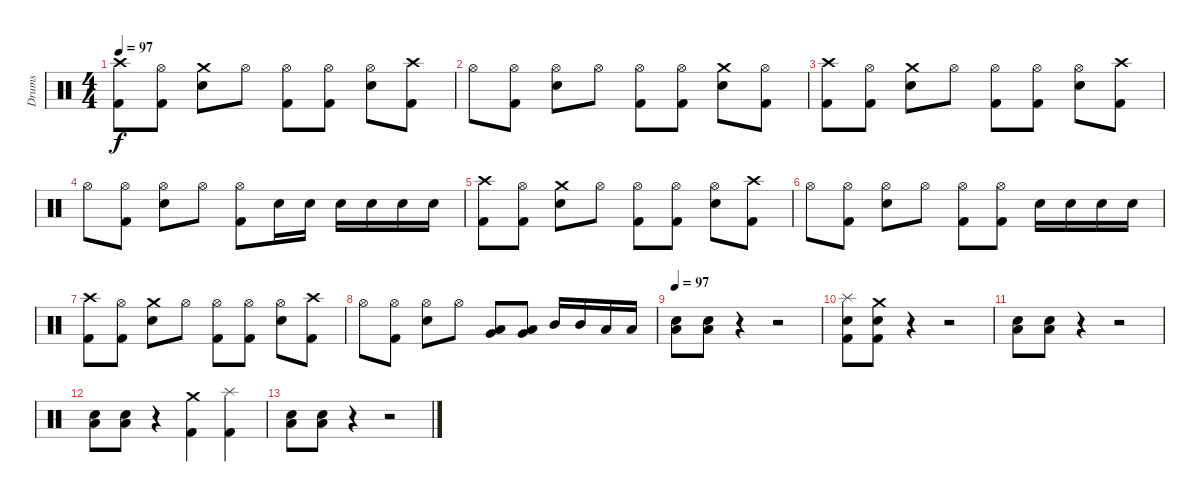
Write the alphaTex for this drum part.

\track ("Drums" "Drums") {instrument percussion}
\staff {score}
\articulation defaults
\ts (4 4)
\tempo 97
\clef neutral
\ks c
("Crash high (hit)" "Kick (hit) 2").8{dy f} ("Hi-Hat (open)" "Kick (hit) 2").8 ("Crash medium (hit)" "Electric Snare (hit)").8 "Hi-Hat (open)".8 ("Hi-Hat (open)" "Kick (hit) 2").8 ("Hi-Hat (open)" "Kick (hit) 2").8 ("Hi-Hat (open)" "Electric Snare (hit)").8 ("Crash high (hit)" "Kick (hit) 2").8 |
"Hi-Hat (open)".8 ("Hi-Hat (open)" "Kick (hit) 2").8 ("Hi-Hat (open)" "Electric Snare (hit)").8 "Hi-Hat (open)".8 ("Hi-Hat (open)" "Kick (hit) 2").8 ("Hi-Hat (open)" "Kick (hit) 2").8 ("Crash medium (hit)" "Electric Snare (hit)").8 ("Hi-Hat (open)" "Kick (hit) 2").8 |
("Crash high (hit)" "Kick (hit) 2").8 ("Hi-Hat (open)" "Kick (hit) 2").8 ("Crash medium (hit)" "Electric Snare (hit)").8 "Hi-Hat (open)".8 ("Hi-Hat (open)" "Kick (hit) 2").8 ("Hi-Hat (open)" "Kick (hit) 2").8 ("Hi-Hat (open)" "Electric Snare (hit)").8 ("Crash high (hit)" "Kick (hit) 2").8 |
"Hi-Hat (open)".8 ("Hi-Hat (open)" "Kick (hit) 2").8 ("Hi-Hat (open)" "Electric Snare (hit)").8 "Hi-Hat (open)".8 ("Hi-Hat (open)" "Kick (hit) 2").8 "Electric Snare (hit)".16 "Electric Snare (hit)".16 "Electric Snare (hit)".16 "Electric Snare (hit)".16 "Electric Snare (hit)".16 "Electric Snare (hit)".16 |
("Crash high (hit)" "Kick (hit) 2").8 ("Hi-Hat (open)" "Kick (hit) 2").8 ("Crash medium (hit)" "Electric Snare (hit)").8 "Hi-Hat (open)".8 ("Hi-Hat (open)" "Kick (hit) 2").8 ("Hi-Hat (open)" "Kick (hit) 2").8 ("Hi-Hat (open)" "Electric Snare (hit)").8 ("Crash high (hit)" "Kick (hit) 2").8 |
"Hi-Hat (open)".8 ("Hi-Hat (open)" "Kick (hit) 2").8 ("Hi-Hat (open)" "Electric Snare (hit)").8 "Hi-Hat (open)".8 ("Hi-Hat (open)" "Kick (hit) 2").8 ("Hi-Hat (open)" "Kick (hit) 2").8 "Electric Snare (hit)".16 "Electric Snare (hit)".16 "Electric Snare (hit)".16 "Electric Snare (hit)".16 |
("Crash high (hit)" "Kick (hit) 2").8 ("Hi-Hat (open)" "Kick (hit) 2").8 ("Crash medium (hit)" "Electric Snare (hit)").8 "Hi-Hat (open)".8 ("Hi-Hat (open)" "Kick (hit) 2").8 ("Hi-Hat (open)" "Kick (hit) 2").8 ("Hi-Hat (open)" "Electric Snare (hit)").8 ("Crash high (hit)" "Kick (hit) 2").8 |
"Hi-Hat (open)".8 ("Hi-Hat (open)" "Kick (hit) 2").8 ("Hi-Hat (open)" "Electric Snare (hit)").8 "Hi-Hat (open)".8 ("Very Low Tom (hit)" "Low Tom (hit)").8 ("Very Low Tom (hit)" "Low Tom (hit)").8 "Mid Tom (hit)".16 "Mid Tom (hit)".16 "Low Tom (hit)".16 "Low Tom (hit)".16 |
\tempo 97
("Electric Snare (hit)" "Low Floor Tom (hit)").8 ("Electric Snare (hit)" "Low Floor Tom (hit)").8 r.4 r.2 |
("Splash (hit)" "Electric Snare (hit)" "Kick (hit) 2").8 ("Crash medium (hit)" "Electric Snare (hit)" "Kick (hit) 2").8 r.4 r.2 |
("Electric Snare (hit)" "Low Floor Tom (hit)").8 ("Electric Snare (hit)" "Low Floor Tom (hit)").8 r.4 r.2 |
("Electric Snare (hit)" "Low Floor Tom (hit)").8 ("Electric Snare (hit)" "Low Floor Tom (hit)").8 r.4 ("Crash medium (hit)" "Kick (hit) 2").4 ("Splash (hit)" "Kick (hit) 2").4 |
("Electric Snare (hit)" "Low Floor Tom (hit)").8 ("Electric Snare (hit)" "Low Floor Tom (hit)").8 r.4 r.2
